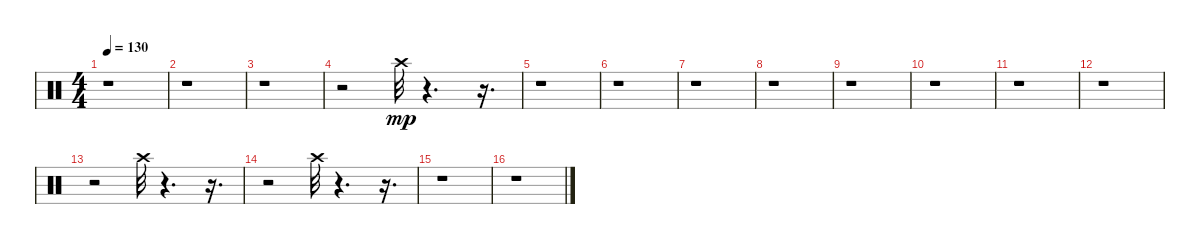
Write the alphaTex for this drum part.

\track "" {instrument percussion}
\staff {score}
\articulation defaults
\ts (4 4)
\tempo 130
\clef neutral
\ks c
r.1{dy mp} |
r.1 |
r.1 |
r.2 "Crash high (hit)".32 r.4{d} r.16{d} |
r.1 |
r.1 |
r.1 |
r.1 |
r.1 |
r.1 |
r.1 |
r.1 |
r.2 "Crash high (hit)".32 r.4{d} r.16{d} |
r.2 "Crash high (hit)".32 r.4{d} r.16{d} |
r.1 |
r.1
